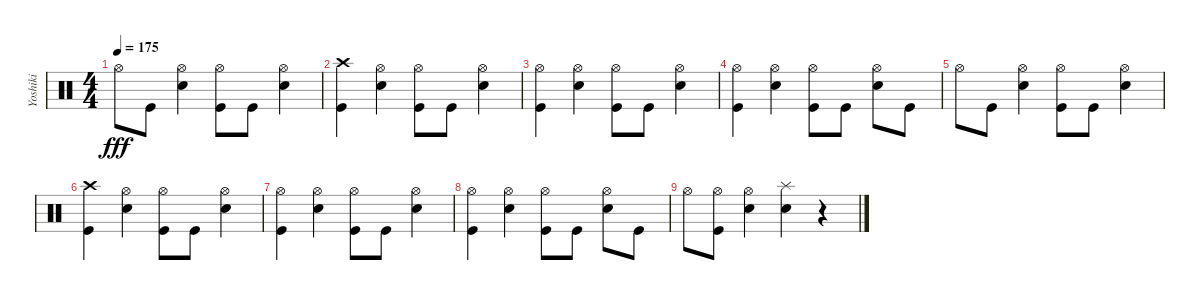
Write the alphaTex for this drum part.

\track ("Yoshiki" "Yoshiki") {instrument percussion}
\staff {score}
\articulation defaults
\ts (4 4)
\tempo 175
\clef neutral
\ks c "Hi-Hat (open)".8{dy fff} "Kick (hit)".8
("Hi-Hat (open)" "Snare (hit) 2").4 ("Hi-Hat (open)" "Kick (hit)").8 "Kick (hit)".8 ("Hi-Hat (open)" "Snare (hit) 2").4 |
("Crash high (hit)" "Kick (hit)").4 ("Hi-Hat (open)" "Snare (hit) 2").4 ("Hi-Hat (open)" "Kick (hit)").8 "Kick (hit)".8 ("Hi-Hat (open)" "Snare (hit) 2").4 |
("Hi-Hat (open)" "Kick (hit)").4 ("Hi-Hat (open)" "Snare (hit) 2").4 ("Hi-Hat (open)" "Kick (hit)").8 "Kick (hit)".8 ("Hi-Hat (open)" "Snare (hit) 2").4 |
("Hi-Hat (open)" "Kick (hit)").4 ("Hi-Hat (open)" "Snare (hit) 2").4 ("Hi-Hat (open)" "Kick (hit)").8 "Kick (hit)".8 ("Hi-Hat (open)" "Snare (hit) 2").8 "Kick (hit)".8 |
"Hi-Hat (open)".8 "Kick (hit)".8 ("Hi-Hat (open)" "Snare (hit) 2").4 ("Hi-Hat (open)" "Kick (hit)").8 "Kick (hit)".8 ("Hi-Hat (open)" "Snare (hit) 2").4 |
("Crash high (hit)" "Kick (hit)").4 ("Hi-Hat (open)" "Snare (hit) 2").4 ("Hi-Hat (open)" "Kick (hit)").8 "Kick (hit)".8 ("Hi-Hat (open)" "Snare (hit) 2").4 |
("Hi-Hat (open)" "Kick (hit)").4 ("Hi-Hat (open)" "Snare (hit) 2").4 ("Hi-Hat (open)" "Kick (hit)").8 "Kick (hit)".8 ("Hi-Hat (open)" "Snare (hit) 2").4 |
("Hi-Hat (open)" "Kick (hit)").4 ("Hi-Hat (open)" "Snare (hit) 2").4 ("Hi-Hat (open)" "Kick (hit)").8 "Kick (hit)".8 ("Hi-Hat (open)" "Snare (hit) 2").8 "Kick (hit)".8 |
"Hi-Hat (open)".8 ("Hi-Hat (open)" "Kick (hit)").8 ("Hi-Hat (open)" "Snare (hit) 2").4 ("Splash (hit)" "Snare (hit) 2").4 r.4
